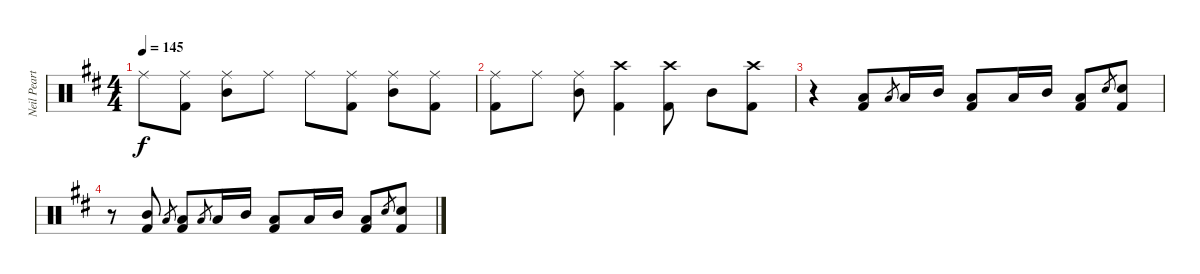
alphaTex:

\track ("Neil Peart" "Neil Peart") {instrument percussion}
\staff {score}
\articulation defaults
\ts (4 4)
\tempo 145
\clef neutral
\ks d "Ride (middle)".8{dy f}
("Ride (middle)" "Kick (hit) 2").8 ("Ride (middle)" "Mid Tom (hit)").8 "Ride (middle)".8 "Ride (middle)".8 ("Ride (middle)" "Kick (hit) 2").8 ("Ride (middle)" "Mid Tom (hit)").8 ("Ride (middle)" "Kick (hit) 2").8 |
("Ride (middle)" "Kick (hit) 2").8 "Ride (middle)".8 ("Ride (middle)" "Mid Tom (hit)").8 ("Crash high (hit)" "Kick (hit) 2").4 ("Crash high (hit)" "Kick (hit) 2").8 "Mid Tom (hit)".8 ("Crash high (hit)" "Kick (hit) 2").8 |
r.4 ("Low Tom (hit)" "Kick (hit) 2").8 "Low Tom (hit)".8{gr} "Low Tom (hit)".16 "Mid Tom (hit)".16 ("Low Tom (hit)" "Kick (hit) 2").8 "Low Tom (hit)".16 "Mid Tom (hit)".16 ("Low Tom (hit)" "Kick (hit) 2").8 "Snare (hit) 2".8{gr} ("Snare (hit) 2" "Kick (hit) 2").8 |
r.8 ("Mid Tom (hit)" "Kick (hit) 2").8 "Low Tom (hit)".8{gr} ("Low Tom (hit)" "Kick (hit) 2").8 "Low Tom (hit)".8{gr} "Low Tom (hit)".16 "Mid Tom (hit)".16 ("Low Tom (hit)" "Kick (hit) 2").8 "Low Tom (hit)".16 "Mid Tom (hit)".16 ("Low Tom (hit)" "Kick (hit) 2").8 "Snare (hit) 2".8{gr} ("Snare (hit) 2" "Kick (hit) 2").8
